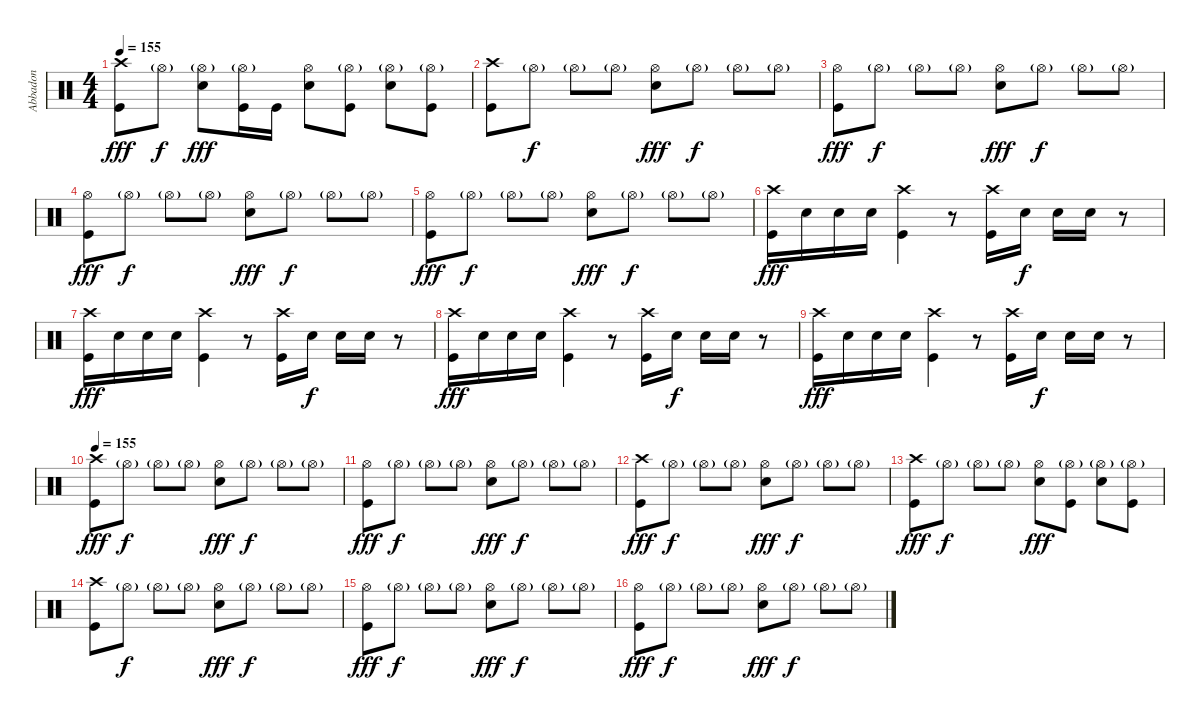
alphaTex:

\track ("Abbadon" "Abbadon") {instrument percussion}
\staff {score}
\articulation defaults
\ts (4 4)
\tempo 155
\clef neutral
\ks c
("Crash high (hit)" "Kick (hit)").8{dy fff} "Hi-Hat (open)"{g}.8{dy f} ("Hi-Hat (open)"{g} "Electric Snare (hit)").8{dy fff} ("Hi-Hat (open)"{g} "Kick (hit)").16 "Kick (hit)".16 ("Hi-Hat (open)" "Electric Snare (hit)").8 ("Hi-Hat (open)"{g} "Kick (hit)").8 ("Hi-Hat (open)"{g} "Electric Snare (hit)").8 ("Hi-Hat (open)"{g} "Kick (hit)").8 |
("Crash high (hit)" "Kick (hit)").8 "Hi-Hat (open)"{g}.8{dy f} "Hi-Hat (open)"{g}.8 "Hi-Hat (open)"{g}.8 ("Hi-Hat (open)" "Electric Snare (hit)").8{dy fff} "Hi-Hat (open)"{g}.8{dy f} "Hi-Hat (open)"{g}.8 "Hi-Hat (open)"{g}.8 |
("Hi-Hat (open)" "Kick (hit)").8{dy fff} "Hi-Hat (open)"{g}.8{dy f} "Hi-Hat (open)"{g}.8 "Hi-Hat (open)"{g}.8 ("Hi-Hat (open)" "Electric Snare (hit)").8{dy fff} "Hi-Hat (open)"{g}.8{dy f} "Hi-Hat (open)"{g}.8 "Hi-Hat (open)"{g}.8 |
("Hi-Hat (open)" "Kick (hit)").8{dy fff} "Hi-Hat (open)"{g}.8{dy f} "Hi-Hat (open)"{g}.8 "Hi-Hat (open)"{g}.8 ("Hi-Hat (open)" "Electric Snare (hit)").8{dy fff} "Hi-Hat (open)"{g}.8{dy f} "Hi-Hat (open)"{g}.8 "Hi-Hat (open)"{g}.8 |
("Hi-Hat (open)" "Kick (hit)").8{dy fff} "Hi-Hat (open)"{g}.8{dy f} "Hi-Hat (open)"{g}.8 "Hi-Hat (open)"{g}.8 ("Hi-Hat (open)" "Electric Snare (hit)").8{dy fff} "Hi-Hat (open)"{g}.8{dy f} "Hi-Hat (open)"{g}.8 "Hi-Hat (open)"{g}.8 |
("Crash high (hit)" "Kick (hit)").16{dy fff} "Electric Snare (hit)".16 "Electric Snare (hit)".16 "Electric Snare (hit)".16 ("Crash high (hit)" "Kick (hit)").4 r.8 ("Crash high (hit)" "Kick (hit)").16 "Electric Snare (hit)".16{dy f} "Electric Snare (hit)".16 "Electric Snare (hit)".16 r.8 |
("Crash high (hit)" "Kick (hit)").16{dy fff} "Electric Snare (hit)".16 "Electric Snare (hit)".16 "Electric Snare (hit)".16 ("Crash high (hit)" "Kick (hit)").4 r.8 ("Crash high (hit)" "Kick (hit)").16 "Electric Snare (hit)".16{dy f} "Electric Snare (hit)".16 "Electric Snare (hit)".16 r.8 |
("Crash high (hit)" "Kick (hit)").16{dy fff} "Electric Snare (hit)".16 "Electric Snare (hit)".16 "Electric Snare (hit)".16 ("Crash high (hit)" "Kick (hit)").4 r.8 ("Crash high (hit)" "Kick (hit)").16 "Electric Snare (hit)".16{dy f} "Electric Snare (hit)".16 "Electric Snare (hit)".16 r.8 |
("Crash high (hit)" "Kick (hit)").16{dy fff} "Electric Snare (hit)".16 "Electric Snare (hit)".16 "Electric Snare (hit)".16 ("Crash high (hit)" "Kick (hit)").4 r.8 ("Crash high (hit)" "Kick (hit)").16 "Electric Snare (hit)".16{dy f} "Electric Snare (hit)".16 "Electric Snare (hit)".16 r.8 |
\tempo 155
("Crash high (hit)" "Kick (hit)").8{dy fff} "Hi-Hat (open)"{g}.8{dy f} "Hi-Hat (open)"{g}.8 "Hi-Hat (open)"{g}.8 ("Hi-Hat (open)" "Electric Snare (hit)").8{dy fff} "Hi-Hat (open)"{g}.8{dy f} "Hi-Hat (open)"{g}.8 "Hi-Hat (open)"{g}.8 |
("Hi-Hat (open)" "Kick (hit)").8{dy fff} "Hi-Hat (open)"{g}.8{dy f} "Hi-Hat (open)"{g}.8 "Hi-Hat (open)"{g}.8 ("Hi-Hat (open)" "Electric Snare (hit)").8{dy fff} "Hi-Hat (open)"{g}.8{dy f} "Hi-Hat (open)"{g}.8 "Hi-Hat (open)"{g}.8 |
("Crash high (hit)" "Kick (hit)").8{dy fff} "Hi-Hat (open)"{g}.8{dy f} "Hi-Hat (open)"{g}.8 "Hi-Hat (open)"{g}.8 ("Hi-Hat (open)" "Electric Snare (hit)").8{dy fff} "Hi-Hat (open)"{g}.8{dy f} "Hi-Hat (open)"{g}.8 "Hi-Hat (open)"{g}.8 |
("Crash high (hit)" "Kick (hit)").8{dy fff} "Hi-Hat (open)"{g}.8{dy f} "Hi-Hat (open)"{g}.8 "Hi-Hat (open)"{g}.8 ("Hi-Hat (open)" "Electric Snare (hit)").8{dy fff} ("Hi-Hat (open)"{g} "Kick (hit)").8 ("Hi-Hat (open)"{g} "Electric Snare (hit)").8 ("Hi-Hat (open)"{g} "Kick (hit)").8 |
("Crash high (hit)" "Kick (hit)").8 "Hi-Hat (open)"{g}.8{dy f} "Hi-Hat (open)"{g}.8 "Hi-Hat (open)"{g}.8 ("Hi-Hat (open)" "Electric Snare (hit)").8{dy fff} "Hi-Hat (open)"{g}.8{dy f} "Hi-Hat (open)"{g}.8 "Hi-Hat (open)"{g}.8 |
("Hi-Hat (open)" "Kick (hit)").8{dy fff} "Hi-Hat (open)"{g}.8{dy f} "Hi-Hat (open)"{g}.8 "Hi-Hat (open)"{g}.8 ("Hi-Hat (open)" "Electric Snare (hit)").8{dy fff} "Hi-Hat (open)"{g}.8{dy f} "Hi-Hat (open)"{g}.8 "Hi-Hat (open)"{g}.8 |
("Hi-Hat (open)" "Kick (hit)").8{dy fff} "Hi-Hat (open)"{g}.8{dy f} "Hi-Hat (open)"{g}.8 "Hi-Hat (open)"{g}.8 ("Hi-Hat (open)" "Electric Snare (hit)").8{dy fff} "Hi-Hat (open)"{g}.8{dy f} "Hi-Hat (open)"{g}.8 "Hi-Hat (open)"{g}.8
